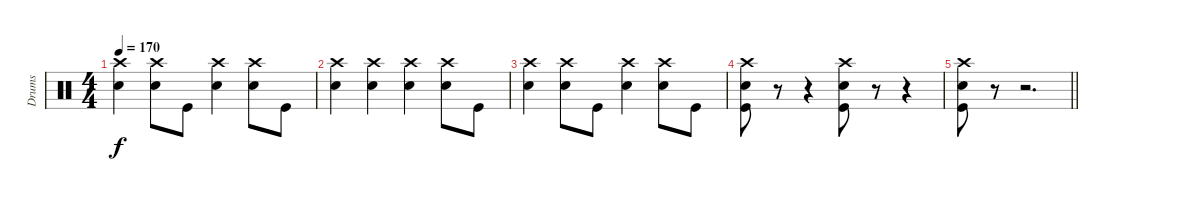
\track ("Drums" "Drums") {instrument percussion}
\staff {score}
\articulation defaults
\ts (4 4)
\tempo 170
\clef neutral
\ks c
("Crash high (hit)" "Snare (hit) 2").4{dy f} ("Crash high (hit)" "Snare (hit) 2").8 "Kick (hit)".8 ("Crash high (hit)" "Snare (hit) 2").4 ("Crash high (hit)" "Snare (hit) 2").8 "Kick (hit)".8 |
("Crash high (hit)" "Snare (hit) 2").4 ("Crash high (hit)" "Snare (hit) 2").4 ("Crash high (hit)" "Snare (hit) 2").4 ("Crash high (hit)" "Snare (hit) 2").8 "Kick (hit)".8 |
("Crash high (hit)" "Snare (hit) 2").4 ("Crash high (hit)" "Snare (hit) 2").8 "Kick (hit)".8 ("Crash high (hit)" "Snare (hit) 2").4 ("Crash high (hit)" "Snare (hit) 2").8 "Kick (hit)".8 |
("Crash high (hit)" "Snare (hit) 2" "Kick (hit)").8 r.8 r.4 ("Crash high (hit)" "Snare (hit) 2" "Kick (hit)").8 r.8 r.4 |
\barLineRight lightlight
("Crash high (hit)" "Snare (hit) 2" "Kick (hit)").8 r.8 r.2{d}
